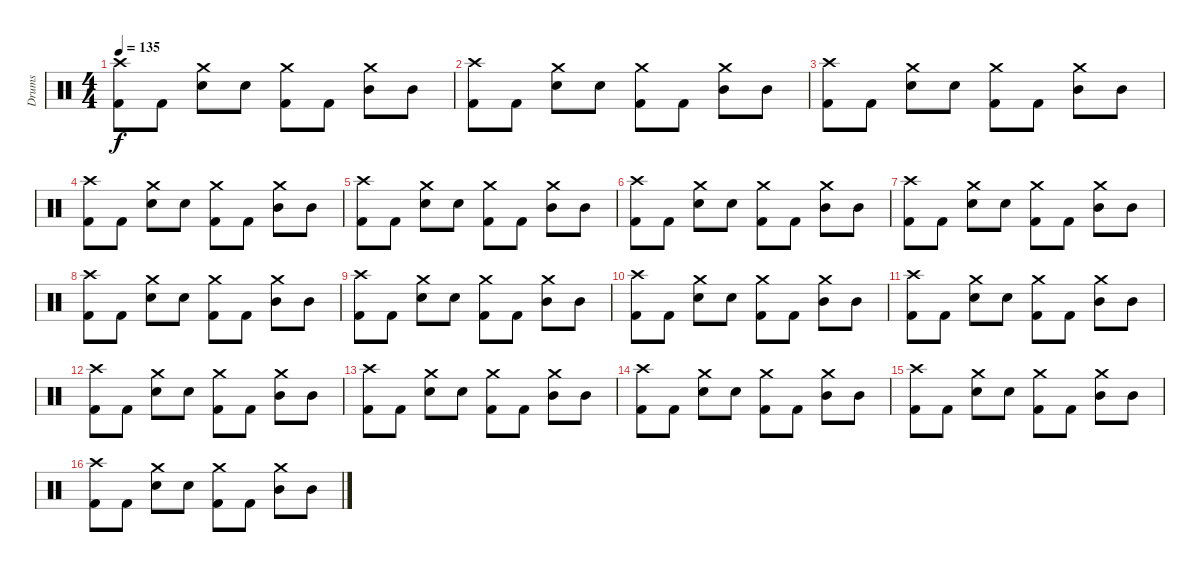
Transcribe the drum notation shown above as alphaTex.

\track ("Drums" "Drums") {instrument percussion}
\staff {score}
\articulation defaults
\ts (4 4)
\tempo 135
\clef neutral
\ks c
("Kick (hit) 2" "Crash high (hit)").8{dy f} "Kick (hit) 2".8 ("Snare (hit) 2" "Crash medium (hit)").8 "Snare (hit) 2".8 ("Kick (hit) 2" "Crash medium (hit)").8 "Kick (hit) 2".8 ("Mid Tom (hit)" "Crash medium (hit)").8 "Mid Tom (hit)".8 |
("Kick (hit) 2" "Crash high (hit)").8 "Kick (hit) 2".8 ("Snare (hit) 2" "Crash medium (hit)").8 "Snare (hit) 2".8 ("Kick (hit) 2" "Crash medium (hit)").8 "Kick (hit) 2".8 ("Mid Tom (hit)" "Crash medium (hit)").8 "Mid Tom (hit)".8 |
("Kick (hit) 2" "Crash high (hit)").8 "Kick (hit) 2".8 ("Snare (hit) 2" "Crash medium (hit)").8 "Snare (hit) 2".8 ("Kick (hit) 2" "Crash medium (hit)").8 "Kick (hit) 2".8 ("Mid Tom (hit)" "Crash medium (hit)").8 "Mid Tom (hit)".8 |
("Kick (hit) 2" "Crash high (hit)").8 "Kick (hit) 2".8 ("Snare (hit) 2" "Crash medium (hit)").8 "Snare (hit) 2".8 ("Kick (hit) 2" "Crash medium (hit)").8 "Kick (hit) 2".8 ("Mid Tom (hit)" "Crash medium (hit)").8 "Mid Tom (hit)".8 |
("Kick (hit) 2" "Crash high (hit)").8 "Kick (hit) 2".8 ("Snare (hit) 2" "Crash medium (hit)").8 "Snare (hit) 2".8 ("Kick (hit) 2" "Crash medium (hit)").8 "Kick (hit) 2".8 ("Mid Tom (hit)" "Crash medium (hit)").8 "Mid Tom (hit)".8 |
("Kick (hit) 2" "Crash high (hit)").8 "Kick (hit) 2".8 ("Snare (hit) 2" "Crash medium (hit)").8 "Snare (hit) 2".8 ("Kick (hit) 2" "Crash medium (hit)").8 "Kick (hit) 2".8 ("Mid Tom (hit)" "Crash medium (hit)").8 "Mid Tom (hit)".8 |
("Kick (hit) 2" "Crash high (hit)").8 "Kick (hit) 2".8 ("Snare (hit) 2" "Crash medium (hit)").8 "Snare (hit) 2".8 ("Kick (hit) 2" "Crash medium (hit)").8 "Kick (hit) 2".8 ("Mid Tom (hit)" "Crash medium (hit)").8 "Mid Tom (hit)".8 |
("Kick (hit) 2" "Crash high (hit)").8 "Kick (hit) 2".8 ("Snare (hit) 2" "Crash medium (hit)").8 "Snare (hit) 2".8 ("Kick (hit) 2" "Crash medium (hit)").8 "Kick (hit) 2".8 ("Mid Tom (hit)" "Crash medium (hit)").8 "Mid Tom (hit)".8 |
("Kick (hit) 2" "Crash high (hit)").8 "Kick (hit) 2".8 ("Snare (hit) 2" "Crash medium (hit)").8 "Snare (hit) 2".8 ("Kick (hit) 2" "Crash medium (hit)").8 "Kick (hit) 2".8 ("Mid Tom (hit)" "Crash medium (hit)").8 "Mid Tom (hit)".8 |
("Kick (hit) 2" "Crash high (hit)").8 "Kick (hit) 2".8 ("Snare (hit) 2" "Crash medium (hit)").8 "Snare (hit) 2".8 ("Kick (hit) 2" "Crash medium (hit)").8 "Kick (hit) 2".8 ("Mid Tom (hit)" "Crash medium (hit)").8 "Mid Tom (hit)".8 |
("Kick (hit) 2" "Crash high (hit)").8 "Kick (hit) 2".8 ("Snare (hit) 2" "Crash medium (hit)").8 "Snare (hit) 2".8 ("Kick (hit) 2" "Crash medium (hit)").8 "Kick (hit) 2".8 ("Mid Tom (hit)" "Crash medium (hit)").8 "Mid Tom (hit)".8 |
("Kick (hit) 2" "Crash high (hit)").8 "Kick (hit) 2".8 ("Snare (hit) 2" "Crash medium (hit)").8 "Snare (hit) 2".8 ("Kick (hit) 2" "Crash medium (hit)").8 "Kick (hit) 2".8 ("Mid Tom (hit)" "Crash medium (hit)").8 "Mid Tom (hit)".8 |
("Kick (hit) 2" "Crash high (hit)").8 "Kick (hit) 2".8 ("Snare (hit) 2" "Crash medium (hit)").8 "Snare (hit) 2".8 ("Kick (hit) 2" "Crash medium (hit)").8 "Kick (hit) 2".8 ("Mid Tom (hit)" "Crash medium (hit)").8 "Mid Tom (hit)".8 |
("Kick (hit) 2" "Crash high (hit)").8 "Kick (hit) 2".8 ("Snare (hit) 2" "Crash medium (hit)").8 "Snare (hit) 2".8 ("Kick (hit) 2" "Crash medium (hit)").8 "Kick (hit) 2".8 ("Mid Tom (hit)" "Crash medium (hit)").8 "Mid Tom (hit)".8 |
("Kick (hit) 2" "Crash high (hit)").8 "Kick (hit) 2".8 ("Snare (hit) 2" "Crash medium (hit)").8 "Snare (hit) 2".8 ("Kick (hit) 2" "Crash medium (hit)").8 "Kick (hit) 2".8 ("Mid Tom (hit)" "Crash medium (hit)").8 "Mid Tom (hit)".8 |
("Kick (hit) 2" "Crash high (hit)").8 "Kick (hit) 2".8 ("Snare (hit) 2" "Crash medium (hit)").8 "Snare (hit) 2".8 ("Kick (hit) 2" "Crash medium (hit)").8 "Kick (hit) 2".8 ("Mid Tom (hit)" "Crash medium (hit)").8 "Mid Tom (hit)".8
